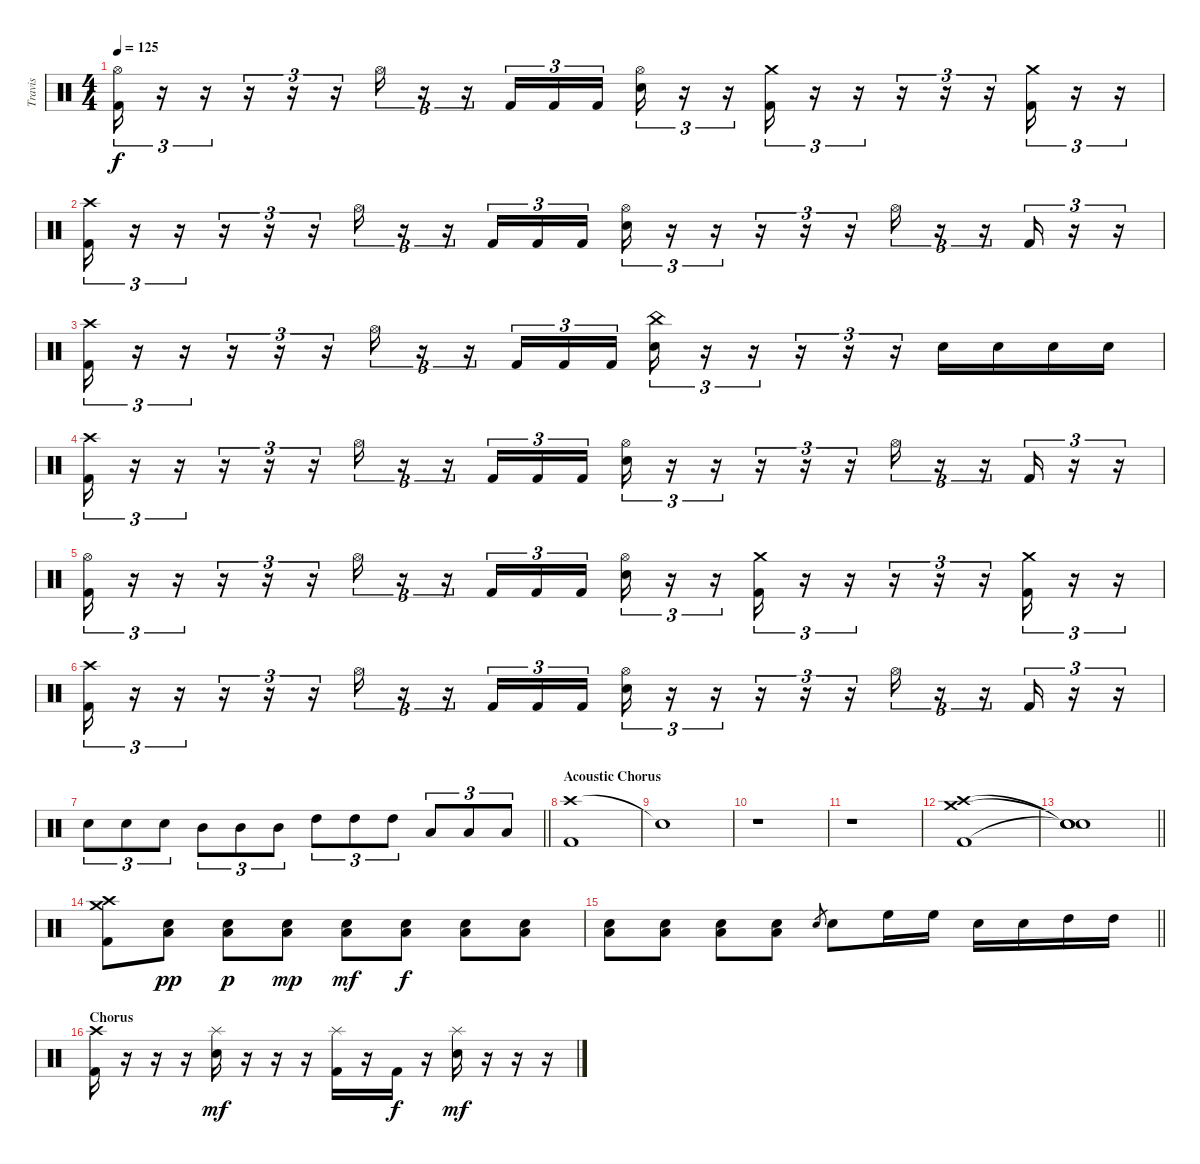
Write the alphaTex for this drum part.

\track ("Travis" "Travis") {instrument percussion}
\staff {score}
\articulation defaults
\ts (4 4)
\tempo 125
\clef neutral
\ks c
("Hi-Hat (open)" "Kick (hit) 2").16{tu (3 2) dy f} r.16{tu (3 2)} r.16{tu (3 2)} r.16{tu (3 2)} r.16{tu (3 2)} r.16{tu (3 2)} "Hi-Hat (open)".16{tu (3 2)} r.16{tu (3 2)} r.16{tu (3 2)} "Kick (hit) 2".16{tu (3 2)} "Kick (hit) 2".16{tu (3 2)} "Kick (hit) 2".16{tu (3 2)} ("Hi-Hat (open)" "Electric Snare (hit)").16{tu (3 2)} r.16{tu (3 2)} r.16{tu (3 2)} ("Kick (hit) 2" "Crash medium (hit)").16{tu (3 2)} r.16{tu (3 2)} r.16{tu (3 2)} r.16{tu (3 2) volume 0} r.16{tu (3 2)} r.16{tu (3 2)} ("Crash medium (hit)" "Kick (hit) 2").16{tu (3 2) volume 16} r.16{tu (3 2)} r.16{tu (3 2)} |
("Crash high (hit)" "Kick (hit) 2").16{tu (3 2)} r.16{tu (3 2)} r.16{tu (3 2)} r.16{tu (3 2)} r.16{tu (3 2)} r.16{tu (3 2)} "Hi-Hat (open)".16{tu (3 2)} r.16{tu (3 2)} r.16{tu (3 2)} "Kick (hit) 2".16{tu (3 2)} "Kick (hit) 2".16{tu (3 2)} "Kick (hit) 2".16{tu (3 2)} ("Hi-Hat (open)" "Electric Snare (hit)").16{tu (3 2)} r.16{tu (3 2)} r.16{tu (3 2)} r.16{tu (3 2)} r.16{tu (3 2)} r.16{tu (3 2)} "Hi-Hat (open)".16{tu (3 2)} r.16{tu (3 2)} r.16{tu (3 2)} "Kick (hit) 2".16{tu (3 2)} r.16{tu (3 2)} r.16{tu (3 2)} |
("Crash high (hit)" "Kick (hit) 2").16{tu (3 2)} r.16{tu (3 2)} r.16{tu (3 2)} r.16{tu (3 2)} r.16{tu (3 2)} r.16{tu (3 2)} "Hi-Hat (open)".16{tu (3 2)} r.16{tu (3 2)} r.16{tu (3 2)} "Kick (hit) 2".16{tu (3 2)} "Kick (hit) 2".16{tu (3 2)} "Kick (hit) 2".16{tu (3 2)} ("China (hit)" "Electric Snare (hit)").16{tu (3 2)} r.16{tu (3 2)} r.16{tu (3 2)} r.16{tu (3 2)} r.16{tu (3 2)} r.16{tu (3 2)} "Electric Snare (hit)".16 "Electric Snare (hit)".16 "Electric Snare (hit)".16 "Electric Snare (hit)".16 |
("Crash high (hit)" "Kick (hit) 2").16{tu (3 2)} r.16{tu (3 2)} r.16{tu (3 2)} r.16{tu (3 2)} r.16{tu (3 2)} r.16{tu (3 2)} "Hi-Hat (open)".16{tu (3 2)} r.16{tu (3 2)} r.16{tu (3 2)} "Kick (hit) 2".16{tu (3 2)} "Kick (hit) 2".16{tu (3 2)} "Kick (hit) 2".16{tu (3 2)} ("Hi-Hat (open)" "Electric Snare (hit)").16{tu (3 2)} r.16{tu (3 2)} r.16{tu (3 2)} r.16{tu (3 2)} r.16{tu (3 2)} r.16{tu (3 2)} "Hi-Hat (open)".16{tu (3 2)} r.16{tu (3 2)} r.16{tu (3 2)} "Kick (hit) 2".16{tu (3 2)} r.16{tu (3 2)} r.16{tu (3 2)} |
("Hi-Hat (open)" "Kick (hit) 2").16{tu (3 2)} r.16{tu (3 2)} r.16{tu (3 2)} r.16{tu (3 2)} r.16{tu (3 2)} r.16{tu (3 2)} "Hi-Hat (open)".16{tu (3 2)} r.16{tu (3 2)} r.16{tu (3 2)} "Kick (hit) 2".16{tu (3 2)} "Kick (hit) 2".16{tu (3 2)} "Kick (hit) 2".16{tu (3 2)} ("Hi-Hat (open)" "Electric Snare (hit)").16{tu (3 2)} r.16{tu (3 2)} r.16{tu (3 2)} ("Kick (hit) 2" "Crash medium (hit)").16{tu (3 2)} r.16{tu (3 2)} r.16{tu (3 2)} r.16{tu (3 2) volume 0} r.16{tu (3 2)} r.16{tu (3 2)} ("Crash medium (hit)" "Kick (hit) 2").16{tu (3 2) volume 16} r.16{tu (3 2)} r.16{tu (3 2)} |
("Crash high (hit)" "Kick (hit) 2").16{tu (3 2)} r.16{tu (3 2)} r.16{tu (3 2)} r.16{tu (3 2)} r.16{tu (3 2)} r.16{tu (3 2)} "Hi-Hat (open)".16{tu (3 2)} r.16{tu (3 2)} r.16{tu (3 2)} "Kick (hit) 2".16{tu (3 2)} "Kick (hit) 2".16{tu (3 2)} "Kick (hit) 2".16{tu (3 2)} ("Hi-Hat (open)" "Electric Snare (hit)").16{tu (3 2)} r.16{tu (3 2)} r.16{tu (3 2)} r.16{tu (3 2)} r.16{tu (3 2)} r.16{tu (3 2)} "Hi-Hat (open)".16{tu (3 2)} r.16{tu (3 2)} r.16{tu (3 2)} "Kick (hit) 2".16{tu (3 2)} r.16{tu (3 2)} r.16{tu (3 2)} |
\barLineRight lightlight "Electric Snare (hit)".8{tu (3 2)} "Electric Snare (hit)".8{tu (3 2)} "Electric Snare (hit)".8{tu (3 2)} "Mid Tom (hit)".8{tu (3 2)} "Mid Tom (hit)".8{tu (3 2)} "Mid Tom (hit)".8{tu (3 2)} "High Tom (hit)".8{tu (3 2)} "High Tom (hit)".8{tu (3 2)} "High Tom (hit)".8{tu (3 2)} "Low Tom (hit)".8{tu (3 2)} "Low Tom (hit)".8{tu (3 2)} "Low Tom (hit)".8{tu (3 2)}
|
\section ("" "Acoustic Chorus")
("Crash high (hit)" "Kick (hit) 2").1 |
"Snare (hit)"{t}.1 |
r.1 |
r.1 |
("Crash high (hit)" "Crash medium (hit)" "Kick (hit) 2").1 |
\barLineRight lightlight
("Snare (hit)"{t} "Snare (hit)"{t} "Snare (hit)"{t}).1 |
("Crash high (hit)" "Crash medium (hit)" "Kick (hit) 2").8 ("Low Tom (hit)" "Electric Snare (hit)").8{dy pp} ("Low Tom (hit)" "Electric Snare (hit)").8{dy p} ("Low Tom (hit)" "Electric Snare (hit)").8{dy mp} ("Low Tom (hit)" "Electric Snare (hit)").8{dy mf} ("Low Tom (hit)" "Electric Snare (hit)").8{dy f} ("Low Tom (hit)" "Electric Snare (hit)").8 ("Low Tom (hit)" "Electric Snare (hit)").8 |
\barLineRight lightlight
("Low Tom (hit)" "Electric Snare (hit)").8 ("Low Tom (hit)" "Electric Snare (hit)").8 ("Low Tom (hit)" "Electric Snare (hit)").8 ("Low Tom (hit)" "Electric Snare (hit)").8 "Electric Snare (hit)".8{gr} "Electric Snare (hit)".8 "High Floor Tom (hit)".16 "High Floor Tom (hit)".16 "Electric Snare (hit)".16 "Electric Snare (hit)".16 "High Tom (hit)".16 "High Tom (hit)".16 |
\section ("" "Chorus")
("Crash high (hit)" "Kick (hit) 2").16 r.16 r.16 r.16 ("Splash (hit)" "Electric Snare (hit)").16{dy mf} r.16 r.16 r.16 ("Splash (hit)" "Kick (hit) 2").16 r.16 "Kick (hit) 2".16{dy f} r.16 ("Splash (hit)" "Electric Snare (hit)").16{dy mf} r.16 r.16 r.16
